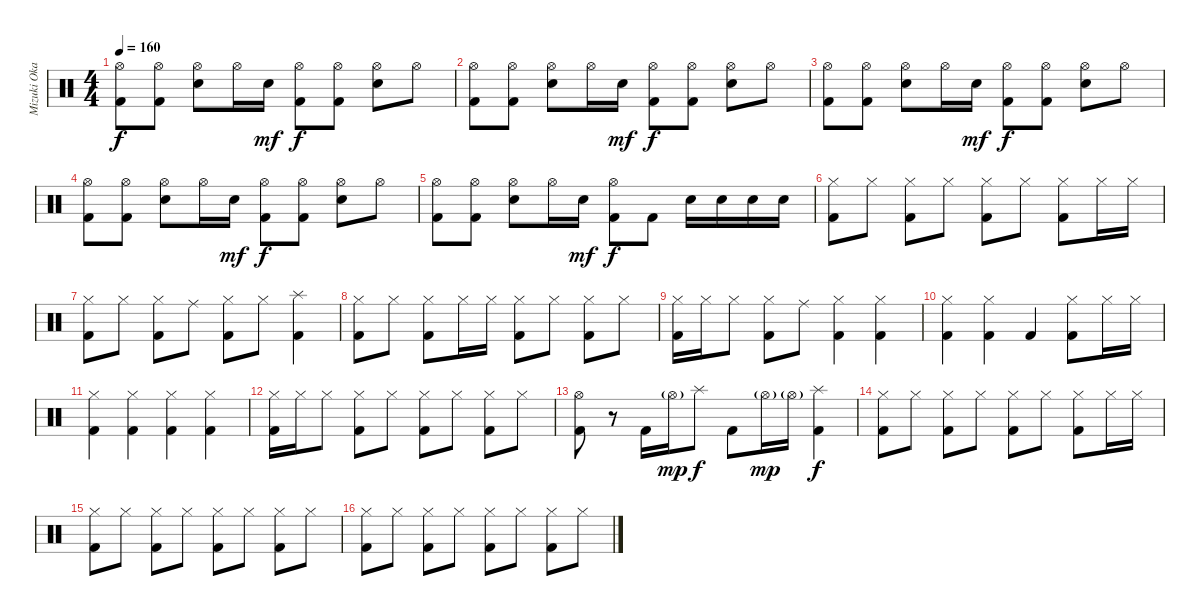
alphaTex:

\track ("Mizuki Okajima (Drums)" "Mizuki Oka") {instrument percussion}
\staff {score}
\articulation defaults
\ts (4 4)
\tempo 160
\clef neutral
\ks c
("Hi-Hat (open)" "Kick (hit) 2").8{dy f} ("Hi-Hat (open)" "Kick (hit) 2").8 ("Hi-Hat (open)" "Snare (hit) 2").8 "Hi-Hat (open)".16 "Snare (hit) 2".16{dy mf} ("Hi-Hat (open)" "Kick (hit) 2").8{dy f} ("Hi-Hat (open)" "Kick (hit) 2").8 ("Hi-Hat (open)" "Snare (hit) 2").8 "Hi-Hat (open)".8 |
("Hi-Hat (open)" "Kick (hit) 2").8 ("Hi-Hat (open)" "Kick (hit) 2").8 ("Hi-Hat (open)" "Snare (hit) 2").8 "Hi-Hat (open)".16 "Snare (hit) 2".16{dy mf} ("Hi-Hat (open)" "Kick (hit) 2").8{dy f} ("Hi-Hat (open)" "Kick (hit) 2").8 ("Hi-Hat (open)" "Snare (hit) 2").8 "Hi-Hat (open)".8 |
("Hi-Hat (open)" "Kick (hit) 2").8 ("Hi-Hat (open)" "Kick (hit) 2").8 ("Hi-Hat (open)" "Snare (hit) 2").8 "Hi-Hat (open)".16 "Snare (hit) 2".16{dy mf} ("Hi-Hat (open)" "Kick (hit) 2").8{dy f} ("Hi-Hat (open)" "Kick (hit) 2").8 ("Hi-Hat (open)" "Snare (hit) 2").8 "Hi-Hat (open)".8 |
("Hi-Hat (open)" "Kick (hit) 2").8 ("Hi-Hat (open)" "Kick (hit) 2").8 ("Hi-Hat (open)" "Snare (hit) 2").8 "Hi-Hat (open)".16 "Snare (hit) 2".16{dy mf} ("Hi-Hat (open)" "Kick (hit) 2").8{dy f} ("Hi-Hat (open)" "Kick (hit) 2").8 ("Hi-Hat (open)" "Snare (hit) 2").8 "Hi-Hat (open)".8 |
("Hi-Hat (open)" "Kick (hit) 2").8 ("Hi-Hat (open)" "Kick (hit) 2").8 ("Hi-Hat (open)" "Snare (hit) 2").8 "Hi-Hat (open)".16 "Snare (hit) 2".16{dy mf} ("Hi-Hat (open)" "Kick (hit) 2").8{dy f} "Kick (hit) 2".8 "Snare (hit) 2".16 "Snare (hit) 2".16 "Snare (hit) 2".16 "Snare (hit) 2".16 |
("Hi-Hat (closed)" "Kick (hit) 2").8 "Hi-Hat (closed)".8 ("Hi-Hat (closed)" "Kick (hit) 2").8 "Hi-Hat (closed)".8 ("Hi-Hat (closed)" "Kick (hit) 2").8 "Hi-Hat (closed)".8 ("Hi-Hat (closed)" "Kick (hit) 2").8 "Hi-Hat (closed)".16 "Hi-Hat (closed)".16 |
("Hi-Hat (closed)" "Kick (hit) 2").8 "Hi-Hat (closed)".8 ("Hi-Hat (closed)" "Kick (hit) 2").8 "Ride (middle)".8 ("Hi-Hat (closed)" "Kick (hit) 2").8 "Hi-Hat (closed)".8 ("Splash (hit)" "Kick (hit) 2").4 |
("Hi-Hat (closed)" "Kick (hit) 2").8 "Hi-Hat (closed)".8 ("Hi-Hat (closed)" "Kick (hit) 2").8 "Hi-Hat (closed)".16 "Hi-Hat (closed)".16 ("Hi-Hat (closed)" "Kick (hit) 2").8 "Hi-Hat (closed)".8 ("Hi-Hat (closed)" "Kick (hit) 2").8 "Hi-Hat (closed)".8 |
("Hi-Hat (closed)" "Kick (hit) 2").16 "Hi-Hat (closed)".16 "Hi-Hat (closed)".8 ("Hi-Hat (closed)" "Kick (hit) 2").8 "Ride (middle)".8 ("Hi-Hat (closed)" "Kick (hit) 2").4 ("Hi-Hat (closed)" "Kick (hit) 2").4 |
("Hi-Hat (closed)" "Kick (hit) 2").4 ("Hi-Hat (closed)" "Kick (hit) 2").4 "Kick (hit) 2".4 ("Hi-Hat (closed)" "Kick (hit) 2").8 "Hi-Hat (closed)".16 "Hi-Hat (closed)".16 |
("Hi-Hat (closed)" "Kick (hit) 2").4 ("Hi-Hat (closed)" "Kick (hit) 2").4 ("Hi-Hat (closed)" "Kick (hit) 2").4 ("Hi-Hat (closed)" "Kick (hit) 2").4 |
("Hi-Hat (closed)" "Kick (hit) 2").16 "Hi-Hat (closed)".16 "Hi-Hat (closed)".8 ("Hi-Hat (closed)" "Kick (hit) 2").8 "Hi-Hat (closed)".8 ("Hi-Hat (closed)" "Kick (hit) 2").8 "Hi-Hat (closed)".8 ("Hi-Hat (closed)" "Kick (hit) 2").8 "Hi-Hat (closed)".8 |
("Hi-Hat (open)" "Kick (hit) 2").8 r.8 "Kick (hit) 2".16 "Hi-Hat (open)"{g}.16{dy mp} "Splash (hit)".8{dy f} "Kick (hit) 2".8 "Hi-Hat (open)"{g}.16{dy mp} "Hi-Hat (open)"{g}.16 ("Splash (hit)" "Kick (hit) 2").4{dy f} |
("Hi-Hat (closed)" "Kick (hit) 2").8 "Hi-Hat (closed)".8 ("Hi-Hat (closed)" "Kick (hit) 2").8 "Hi-Hat (closed)".8 ("Hi-Hat (closed)" "Kick (hit) 2").8 "Hi-Hat (closed)".8 ("Hi-Hat (closed)" "Kick (hit) 2").8 "Hi-Hat (closed)".16 "Hi-Hat (closed)".16 |
("Hi-Hat (closed)" "Kick (hit) 2").8 "Hi-Hat (closed)".8 ("Hi-Hat (closed)" "Kick (hit) 2").8 "Hi-Hat (closed)".8 ("Hi-Hat (closed)" "Kick (hit) 2").8 "Hi-Hat (closed)".8 ("Hi-Hat (closed)" "Kick (hit) 2").8 "Hi-Hat (closed)".8 |
("Hi-Hat (closed)" "Kick (hit) 2").8 "Hi-Hat (closed)".8 ("Hi-Hat (closed)" "Kick (hit) 2").8 "Hi-Hat (closed)".8 ("Hi-Hat (closed)" "Kick (hit) 2").8 "Hi-Hat (closed)".8 ("Hi-Hat (closed)" "Kick (hit) 2").8 "Hi-Hat (closed)".8
